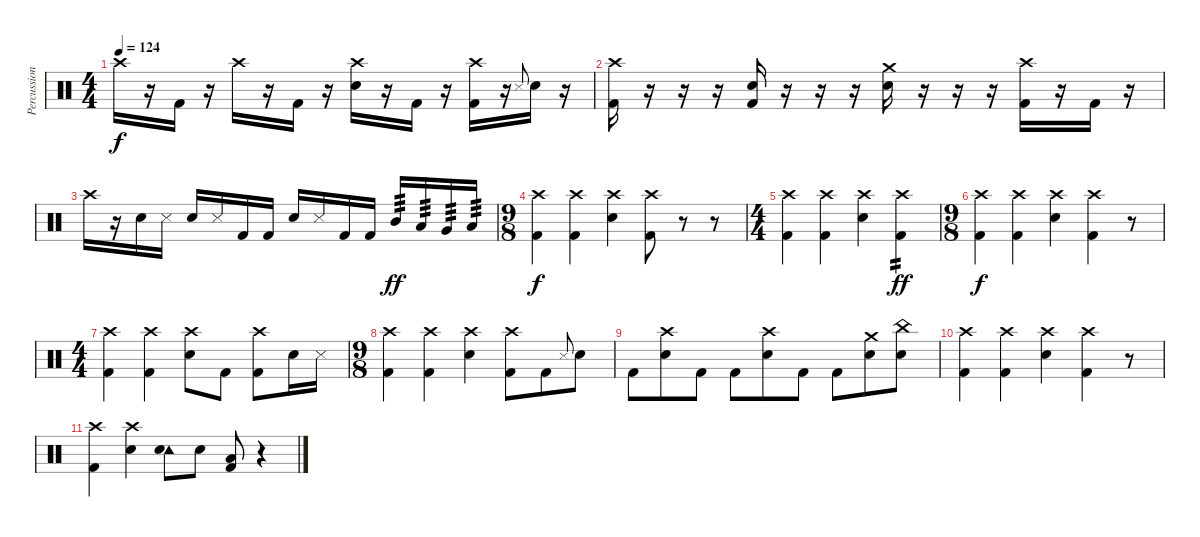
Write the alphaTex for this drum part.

\track ("Percussion" "Percussion") {instrument percussion}
\staff {score}
\articulation defaults
\ts (4 4)
\tempo 124
\clef neutral
\ks c "Crash high (hit)".16{dy f}
r.16 "Kick (hit) 2".16 r.16 "Crash high (hit)".16 r.16 "Kick (hit) 2".16 r.16 ("Crash high (hit)" "Snare (hit) 2").16 r.16 "Kick (hit) 2".16 r.16 ("Crash high (hit)" "Kick (hit) 2").16 r.16 "Metronome (hit)".8{gr onbeat} "Snare (hit) 2".16 r.16 |
("Crash high (hit)" "Kick (hit) 2").16 r.16 r.16 r.16 ("Snare (hit)" "Kick (hit) 2").16 r.16 r.16 r.16 ("Crash medium (hit)" "Snare (hit) 2").16 r.16 r.16 r.16 ("Crash high (hit)" "Kick (hit) 2").16 r.16 "Kick (hit) 2".16 r.16 |
"Crash high (hit)".16 r.16 "Snare (hit) 2".16 "Metronome (hit)".16 "Snare (hit) 2".16 "Metronome (hit)".16 "Kick (hit) 2".16 "Kick (hit) 2".16 "Snare (hit) 2".16 "Metronome (hit)".16 "Kick (hit) 2".16 "Kick (hit) 2".16 "Mid Tom (hit)".16{tp 3 dy ff} "Low Tom (hit)".16{tp 3} "Very Low Tom (hit)".16{tp 3} "Low Floor Tom (hit)".16{tp 3} |
\ts (9 8)
("Crash high (hit)" "Kick (hit) 2").4{dy f} ("Crash high (hit)" "Kick (hit) 2").4 ("Crash high (hit)" "Snare (hit) 2").4 ("Crash high (hit)" "Kick (hit) 2").8 r.8 r.8 |
\ts (4 4)
("Crash high (hit)" "Kick (hit) 2").4 ("Crash high (hit)" "Kick (hit) 2").4 ("Crash high (hit)" "Snare (hit) 2").4 ("Crash high (hit)" "Kick (hit) 2").4{tp 2 dy ff} |
\ts (9 8)
("Crash high (hit)" "Kick (hit) 2").4{dy f} ("Crash high (hit)" "Kick (hit) 2").4 ("Crash high (hit)" "Snare (hit) 2").4 ("Crash high (hit)" "Kick (hit) 2").4 r.8 |
\ts (4 4)
("Crash high (hit)" "Kick (hit) 2").4 ("Crash high (hit)" "Kick (hit) 2").4 ("Crash high (hit)" "Snare (hit) 2").8 "Kick (hit) 2".8 ("Crash high (hit)" "Kick (hit) 2").8 "Snare (hit) 2".16 "Metronome (hit)".16 |
\ts (9 8)
("Crash high (hit)" "Kick (hit) 2").4 ("Crash high (hit)" "Kick (hit) 2").4 ("Crash high (hit)" "Snare (hit) 2").4 ("Crash high (hit)" "Kick (hit) 2").8 "Kick (hit) 2".8 "Metronome (hit)".8{gr onbeat} "Snare (hit) 2".8 |
"Kick (hit) 2".8 ("Crash high (hit)" "Snare (hit) 2").8 "Kick (hit) 2".8 "Kick (hit) 2".8 ("Crash high (hit)" "Snare (hit) 2").8 "Kick (hit) 2".8 "Kick (hit) 2".8 ("Crash medium (hit)" "Snare (hit) 2").8 ("China (hit)" "Snare (hit) 2").8 |
("Crash high (hit)" "Kick (hit) 2").4 ("Crash high (hit)" "Kick (hit) 2").4 ("Crash high (hit)" "Snare (hit) 2").4 ("Crash high (hit)" "Kick (hit) 2").4 r.8 |
("Crash high (hit)" "Kick (hit) 2").4 ("Crash high (hit)" "Snare (hit) 2").4 ("Tambourine (hit)" "Snare (hit) 2").8 "Snare (hit) 2".8 ("Low Floor Tom (hit)" "Kick (hit) 2").8 r.4
